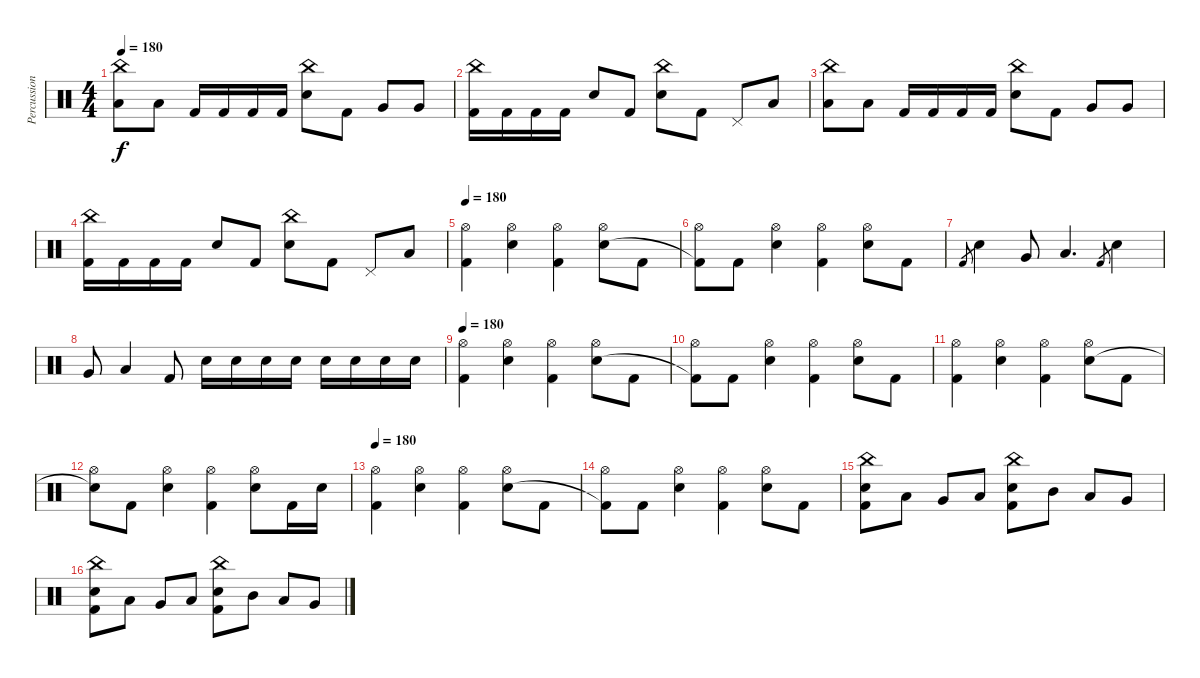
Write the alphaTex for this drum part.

\track ("Percussions" "Percussion") {instrument percussion}
\staff {score}
\articulation defaults
\ts (4 4)
\tempo 180
\clef neutral
\ks c
("China (hit)" "Low Tom (hit)").8{dy f} "Low Tom (hit)".8 "Kick (hit) 2".16 "Kick (hit) 2".16 "Kick (hit) 2".16 "Kick (hit) 2".16 ("China (hit)" "Electric Snare (hit)").8 "Kick (hit) 2".8 "Very Low Tom (hit)".8 "Very Low Tom (hit)".8 |
("China (hit)" "Kick (hit) 2").16 "Kick (hit) 2".16 "Kick (hit) 2".16 "Kick (hit) 2".16 "Electric Snare (hit)".8 "Kick (hit) 2".8 ("China (hit)" "Electric Snare (hit)").8 "Kick (hit) 2".8 "Pedal Hi-Hat (hit)".8 "Low Floor Tom (hit)".8 |
("China (hit)" "Low Tom (hit)").8 "Low Tom (hit)".8 "Kick (hit) 2".16 "Kick (hit) 2".16 "Kick (hit) 2".16 "Kick (hit) 2".16 ("China (hit)" "Electric Snare (hit)").8 "Kick (hit) 2".8 "Very Low Tom (hit)".8 "Very Low Tom (hit)".8 |
("China (hit)" "Kick (hit) 2").16 "Kick (hit) 2".16 "Kick (hit) 2".16 "Kick (hit) 2".16 "Electric Snare (hit)".8 "Kick (hit) 2".8 ("China (hit)" "Electric Snare (hit)").8 "Kick (hit) 2".8 "Pedal Hi-Hat (hit)".8 "Low Floor Tom (hit)".8 |
\tempo 180
("Hi-Hat (open)" "Kick (hit) 2").4 ("Hi-Hat (open)" "Electric Snare (hit)").4 ("Hi-Hat (open)" "Kick (hit) 2").4 ("Hi-Hat (open)" "Electric Snare (hit)").8 "Kick (hit) 2".8 |
("Hi-Hat (open)" "Kick (hit) 2"{t}).8 "Kick (hit) 2".8 ("Hi-Hat (open)" "Electric Snare (hit)").4 ("Hi-Hat (open)" "Kick (hit) 2").4 ("Hi-Hat (open)" "Electric Snare (hit)").8 "Kick (hit) 2".8 |
"Kick (hit) 2".8{gr} "Electric Snare (hit)".4 "Very Low Tom (hit)".8 "Low Floor Tom (hit)".4{d} "Kick (hit) 2".8{gr} "Electric Snare (hit)".4 |
"Very Low Tom (hit)".8 "Low Floor Tom (hit)".4 "Kick (hit) 2".8 "Electric Snare (hit)".16 "Electric Snare (hit)".16 "Electric Snare (hit)".16 "Electric Snare (hit)".16 "Electric Snare (hit)".16 "Electric Snare (hit)".16 "Electric Snare (hit)".16 "Electric Snare (hit)".16 |
\tempo 180
("Hi-Hat (open)" "Kick (hit) 2").4 ("Hi-Hat (open)" "Electric Snare (hit)").4 ("Hi-Hat (open)" "Kick (hit) 2").4 ("Hi-Hat (open)" "Electric Snare (hit)").8 "Kick (hit) 2".8 |
("Hi-Hat (open)" "Kick (hit) 2"{t}).8 "Kick (hit) 2".8 ("Hi-Hat (open)" "Electric Snare (hit)").4 ("Hi-Hat (open)" "Kick (hit) 2").4 ("Hi-Hat (open)" "Electric Snare (hit)").8 "Kick (hit) 2".8 |
("Hi-Hat (open)" "Kick (hit) 2").4 ("Hi-Hat (open)" "Electric Snare (hit)").4 ("Hi-Hat (open)" "Kick (hit) 2").4 ("Hi-Hat (open)" "Electric Snare (hit)").8 "Kick (hit) 2".8 |
("Hi-Hat (open)" "Snare (hit)"{t}).8 "Kick (hit) 2".8 ("Hi-Hat (open)" "Electric Snare (hit)").4 ("Hi-Hat (open)" "Kick (hit) 2").4 ("Hi-Hat (open)" "Electric Snare (hit)").8 "Kick (hit) 2".16 "Electric Snare (hit)".16 |
\tempo 180
("Hi-Hat (open)" "Kick (hit) 2").4 ("Hi-Hat (open)" "Electric Snare (hit)").4 ("Hi-Hat (open)" "Kick (hit) 2").4 ("Hi-Hat (open)" "Electric Snare (hit)").8 "Kick (hit) 2".8 |
("Hi-Hat (open)" "Kick (hit) 2"{t}).8 "Kick (hit) 2".8 ("Hi-Hat (open)" "Electric Snare (hit)").4 ("Hi-Hat (open)" "Kick (hit) 2").4 ("Hi-Hat (open)" "Electric Snare (hit)").8 "Kick (hit) 2".8 |
("China (hit)" "Electric Snare (hit)" "Kick (hit) 2").8 "Low Tom (hit)".8 "Very Low Tom (hit)".8 "Low Floor Tom (hit)".8 ("China (hit)" "Electric Snare (hit)" "Kick (hit) 2").8 "Mid Tom (hit)".8 "Low Tom (hit)".8 "Very Low Tom (hit)".8 |
("China (hit)" "Electric Snare (hit)" "Kick (hit) 2").8 "Low Tom (hit)".8 "Very Low Tom (hit)".8 "Low Floor Tom (hit)".8 ("China (hit)" "Electric Snare (hit)" "Kick (hit) 2").8 "Mid Tom (hit)".8 "Low Tom (hit)".8 "Very Low Tom (hit)".8
